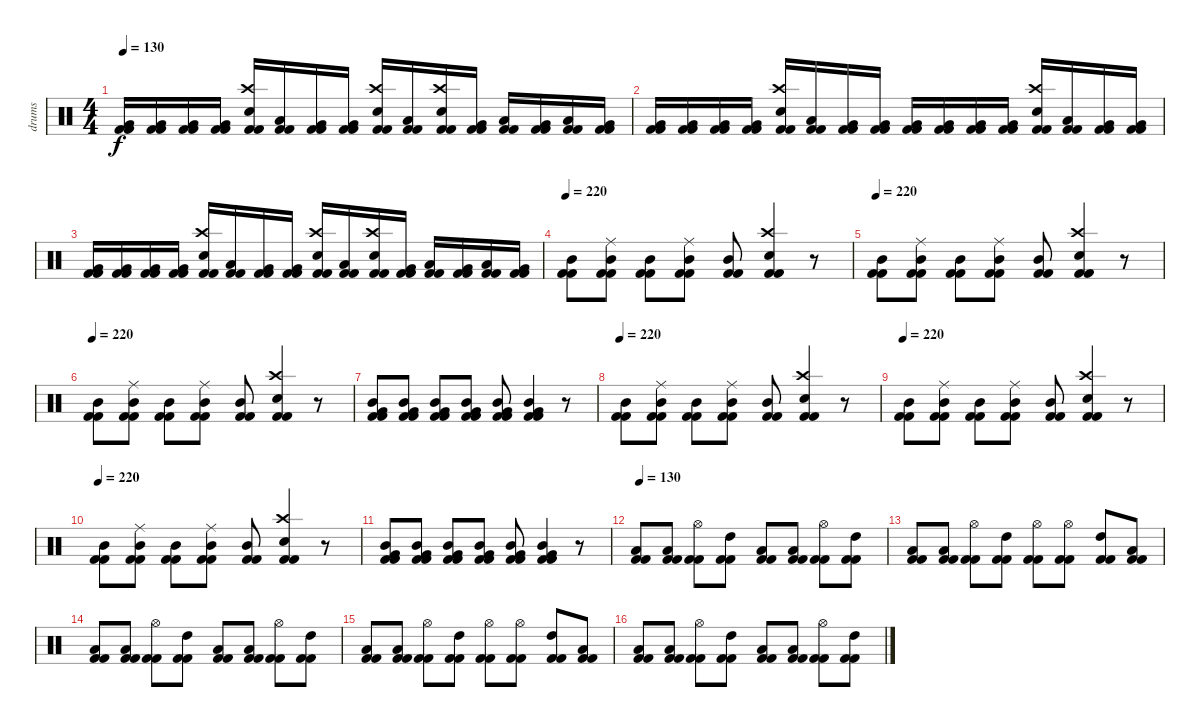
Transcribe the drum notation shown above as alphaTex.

\track ("drums" "drums") {instrument percussion}
\staff {score}
\articulation defaults
\ts (4 4)
\tempo 130
\clef neutral
\ks c
("Very Low Tom (hit)" "Kick (hit) 2" "Kick (hit) 2").16{dy f} ("Very Low Tom (hit)" "Kick (hit) 2" "Kick (hit) 2").16 ("Very Low Tom (hit)" "Kick (hit) 2" "Kick (hit) 2").16 ("Very Low Tom (hit)" "Kick (hit) 2" "Kick (hit) 2").16 ("Crash high (hit)" "Electric Snare (hit)" "Kick (hit) 2" "Kick (hit) 2").16 ("Low Tom (hit)" "Kick (hit) 2" "Kick (hit) 2").16 ("Very Low Tom (hit)" "Kick (hit) 2" "Kick (hit) 2").16 ("Very Low Tom (hit)" "Kick (hit) 2" "Kick (hit) 2").16 ("Crash high (hit)" "Electric Snare (hit)" "Kick (hit) 2" "Kick (hit) 2").16 ("Low Tom (hit)" "Kick (hit) 2" "Kick (hit) 2").16 ("Crash high (hit)" "Electric Snare (hit)" "Kick (hit) 2" "Kick (hit) 2").16 ("Very Low Tom (hit)" "Kick (hit) 2" "Kick (hit) 2").16 ("Low Tom (hit)" "Kick (hit) 2" "Kick (hit) 2").16 ("Very Low Tom (hit)" "Kick (hit) 2" "Kick (hit) 2").16 ("Low Tom (hit)" "Kick (hit) 2" "Kick (hit) 2").16 ("Very Low Tom (hit)" "Kick (hit) 2" "Kick (hit) 2").16 |
("Very Low Tom (hit)" "Kick (hit) 2" "Kick (hit) 2").16 ("Very Low Tom (hit)" "Kick (hit) 2" "Kick (hit) 2").16 ("Very Low Tom (hit)" "Kick (hit) 2" "Kick (hit) 2").16 ("Very Low Tom (hit)" "Kick (hit) 2" "Kick (hit) 2").16 ("Crash high (hit)" "Electric Snare (hit)" "Kick (hit) 2" "Kick (hit) 2").16 ("Low Tom (hit)" "Kick (hit) 2" "Kick (hit) 2").16 ("Very Low Tom (hit)" "Kick (hit) 2" "Kick (hit) 2").16 ("Very Low Tom (hit)" "Kick (hit) 2" "Kick (hit) 2").16 ("Very Low Tom (hit)" "Kick (hit) 2" "Kick (hit) 2").16 ("Very Low Tom (hit)" "Kick (hit) 2" "Kick (hit) 2").16 ("Very Low Tom (hit)" "Kick (hit) 2" "Kick (hit) 2").16 ("Very Low Tom (hit)" "Kick (hit) 2" "Kick (hit) 2").16 ("Crash high (hit)" "Electric Snare (hit)" "Kick (hit) 2" "Kick (hit) 2").16 ("Low Tom (hit)" "Kick (hit) 2" "Kick (hit) 2").16 ("Very Low Tom (hit)" "Kick (hit) 2" "Kick (hit) 2").16 ("Very Low Tom (hit)" "Kick (hit) 2" "Kick (hit) 2").16 |
("Very Low Tom (hit)" "Kick (hit) 2" "Kick (hit) 2").16 ("Very Low Tom (hit)" "Kick (hit) 2" "Kick (hit) 2").16 ("Very Low Tom (hit)" "Kick (hit) 2" "Kick (hit) 2").16 ("Very Low Tom (hit)" "Kick (hit) 2" "Kick (hit) 2").16 ("Crash high (hit)" "Electric Snare (hit)" "Kick (hit) 2" "Kick (hit) 2").16 ("Low Tom (hit)" "Kick (hit) 2" "Kick (hit) 2").16 ("Very Low Tom (hit)" "Kick (hit) 2" "Kick (hit) 2").16 ("Very Low Tom (hit)" "Kick (hit) 2" "Kick (hit) 2").16 ("Crash high (hit)" "Electric Snare (hit)" "Kick (hit) 2" "Kick (hit) 2").16 ("Low Tom (hit)" "Kick (hit) 2" "Kick (hit) 2").16 ("Crash high (hit)" "Electric Snare (hit)" "Kick (hit) 2" "Kick (hit) 2").16 ("Very Low Tom (hit)" "Kick (hit) 2" "Kick (hit) 2").16 ("Low Tom (hit)" "Kick (hit) 2" "Kick (hit) 2").16 ("Very Low Tom (hit)" "Kick (hit) 2" "Kick (hit) 2").16 ("Low Tom (hit)" "Kick (hit) 2" "Kick (hit) 2").16 ("Very Low Tom (hit)" "Kick (hit) 2" "Kick (hit) 2").16 |
\tempo 220
("Mid Tom (hit)" "Kick (hit) 2" "Kick (hit) 2").8 ("Ride (middle)" "Mid Tom (hit)" "Kick (hit) 2" "Kick (hit) 2").8 ("Mid Tom (hit)" "Kick (hit) 2" "Kick (hit) 2").8 ("Ride (middle)" "Mid Tom (hit)" "Kick (hit) 2" "Kick (hit) 2").8 ("Mid Tom (hit)" "Kick (hit) 2" "Kick (hit) 2").8 ("Crash high (hit)" "Electric Snare (hit)" "Kick (hit) 2" "Kick (hit) 2").4 r.8 |
\tempo 220
("Mid Tom (hit)" "Kick (hit) 2" "Kick (hit) 2").8 ("Ride (middle)" "Mid Tom (hit)" "Kick (hit) 2" "Kick (hit) 2").8 ("Mid Tom (hit)" "Kick (hit) 2" "Kick (hit) 2").8 ("Ride (middle)" "Mid Tom (hit)" "Kick (hit) 2" "Kick (hit) 2").8 ("Mid Tom (hit)" "Kick (hit) 2" "Kick (hit) 2").8 ("Crash high (hit)" "Electric Snare (hit)" "Kick (hit) 2" "Kick (hit) 2").4 r.8 |
\tempo 220
("Mid Tom (hit)" "Kick (hit) 2" "Kick (hit) 2").8 ("Ride (middle)" "Mid Tom (hit)" "Kick (hit) 2" "Kick (hit) 2").8 ("Mid Tom (hit)" "Kick (hit) 2" "Kick (hit) 2").8 ("Ride (middle)" "Mid Tom (hit)" "Kick (hit) 2" "Kick (hit) 2").8 ("Mid Tom (hit)" "Kick (hit) 2" "Kick (hit) 2").8 ("Crash high (hit)" "Electric Snare (hit)" "Kick (hit) 2" "Kick (hit) 2").4 r.8 |
("Mid Tom (hit)" "Very Low Tom (hit)" "Kick (hit) 2" "Kick (hit) 2").8 ("Mid Tom (hit)" "Very Low Tom (hit)" "Kick (hit) 2" "Kick (hit) 2").8 ("Mid Tom (hit)" "Very Low Tom (hit)" "Kick (hit) 2" "Kick (hit) 2").8 ("Mid Tom (hit)" "Very Low Tom (hit)" "Kick (hit) 2" "Kick (hit) 2").8 ("Mid Tom (hit)" "Very Low Tom (hit)" "Kick (hit) 2" "Kick (hit) 2").8 ("Mid Tom (hit)" "Very Low Tom (hit)" "Kick (hit) 2" "Kick (hit) 2").4 r.8 |
\tempo 220
("Mid Tom (hit)" "Kick (hit) 2" "Kick (hit) 2").8 ("Ride (middle)" "Mid Tom (hit)" "Kick (hit) 2" "Kick (hit) 2").8 ("Mid Tom (hit)" "Kick (hit) 2" "Kick (hit) 2").8 ("Ride (middle)" "Mid Tom (hit)" "Kick (hit) 2" "Kick (hit) 2").8 ("Mid Tom (hit)" "Kick (hit) 2" "Kick (hit) 2").8 ("Crash high (hit)" "Electric Snare (hit)" "Kick (hit) 2" "Kick (hit) 2").4 r.8 |
\tempo 220
("Mid Tom (hit)" "Kick (hit) 2" "Kick (hit) 2").8 ("Ride (middle)" "Mid Tom (hit)" "Kick (hit) 2" "Kick (hit) 2").8 ("Mid Tom (hit)" "Kick (hit) 2" "Kick (hit) 2").8 ("Ride (middle)" "Mid Tom (hit)" "Kick (hit) 2" "Kick (hit) 2").8 ("Mid Tom (hit)" "Kick (hit) 2" "Kick (hit) 2").8 ("Crash high (hit)" "Electric Snare (hit)" "Kick (hit) 2" "Kick (hit) 2").4 r.8 |
\tempo 220
("Mid Tom (hit)" "Kick (hit) 2" "Kick (hit) 2").8 ("Ride (middle)" "Mid Tom (hit)" "Kick (hit) 2" "Kick (hit) 2").8 ("Mid Tom (hit)" "Kick (hit) 2" "Kick (hit) 2").8 ("Ride (middle)" "Mid Tom (hit)" "Kick (hit) 2" "Kick (hit) 2").8 ("Mid Tom (hit)" "Kick (hit) 2" "Kick (hit) 2").8 ("Crash high (hit)" "Electric Snare (hit)" "Kick (hit) 2" "Kick (hit) 2").4 r.8 |
("Mid Tom (hit)" "Very Low Tom (hit)" "Kick (hit) 2" "Kick (hit) 2").8 ("Mid Tom (hit)" "Very Low Tom (hit)" "Kick (hit) 2" "Kick (hit) 2").8 ("Mid Tom (hit)" "Very Low Tom (hit)" "Kick (hit) 2" "Kick (hit) 2").8 ("Mid Tom (hit)" "Very Low Tom (hit)" "Kick (hit) 2" "Kick (hit) 2").8 ("Mid Tom (hit)" "Very Low Tom (hit)" "Kick (hit) 2" "Kick (hit) 2").8 ("Mid Tom (hit)" "Very Low Tom (hit)" "Kick (hit) 2" "Kick (hit) 2").4 r.8 |
\tempo 130
("Low Tom (hit)" "Kick (hit) 2" "Kick (hit) 2").8 ("Low Tom (hit)" "Kick (hit) 2" "Kick (hit) 2").8 ("Hi-Hat (open)" "Kick (hit) 2" "Kick (hit) 2").8 ("High Tom (hit)" "Kick (hit) 2" "Kick (hit) 2").8 ("Low Tom (hit)" "Kick (hit) 2" "Kick (hit) 2").8 ("Low Tom (hit)" "Kick (hit) 2" "Kick (hit) 2").8 ("Hi-Hat (open)" "Kick (hit) 2" "Kick (hit) 2").8 ("High Tom (hit)" "Kick (hit) 2" "Kick (hit) 2").8 |
("Low Tom (hit)" "Kick (hit) 2" "Kick (hit) 2").8 ("Low Tom (hit)" "Kick (hit) 2" "Kick (hit) 2").8 ("Hi-Hat (open)" "Kick (hit) 2" "Kick (hit) 2").8 ("High Tom (hit)" "Kick (hit) 2" "Kick (hit) 2").8 ("Hi-Hat (open)" "Kick (hit) 2" "Kick (hit) 2").8 ("Hi-Hat (open)" "Kick (hit) 2" "Kick (hit) 2").8 ("High Tom (hit)" "Kick (hit) 2" "Kick (hit) 2").8 ("Low Tom (hit)" "Kick (hit) 2" "Kick (hit) 2").8 |
("Low Tom (hit)" "Kick (hit) 2" "Kick (hit) 2").8 ("Low Tom (hit)" "Kick (hit) 2" "Kick (hit) 2").8 ("Hi-Hat (open)" "Kick (hit) 2" "Kick (hit) 2").8 ("High Tom (hit)" "Kick (hit) 2" "Kick (hit) 2").8 ("Low Tom (hit)" "Kick (hit) 2" "Kick (hit) 2").8 ("Low Tom (hit)" "Kick (hit) 2" "Kick (hit) 2").8 ("Hi-Hat (open)" "Kick (hit) 2" "Kick (hit) 2").8 ("High Tom (hit)" "Kick (hit) 2" "Kick (hit) 2").8 |
("Low Tom (hit)" "Kick (hit) 2" "Kick (hit) 2").8 ("Low Tom (hit)" "Kick (hit) 2" "Kick (hit) 2").8 ("Hi-Hat (open)" "Kick (hit) 2" "Kick (hit) 2").8 ("High Tom (hit)" "Kick (hit) 2" "Kick (hit) 2").8 ("Hi-Hat (open)" "Kick (hit) 2" "Kick (hit) 2").8 ("Hi-Hat (open)" "Kick (hit) 2" "Kick (hit) 2").8 ("High Tom (hit)" "Kick (hit) 2" "Kick (hit) 2").8 ("Low Tom (hit)" "Kick (hit) 2" "Kick (hit) 2").8 |
("Low Tom (hit)" "Kick (hit) 2" "Kick (hit) 2").8 ("Low Tom (hit)" "Kick (hit) 2" "Kick (hit) 2").8 ("Hi-Hat (open)" "Kick (hit) 2" "Kick (hit) 2").8 ("High Tom (hit)" "Kick (hit) 2" "Kick (hit) 2").8 ("Low Tom (hit)" "Kick (hit) 2" "Kick (hit) 2").8 ("Low Tom (hit)" "Kick (hit) 2" "Kick (hit) 2").8 ("Hi-Hat (open)" "Kick (hit) 2" "Kick (hit) 2").8 ("High Tom (hit)" "Kick (hit) 2" "Kick (hit) 2").8
